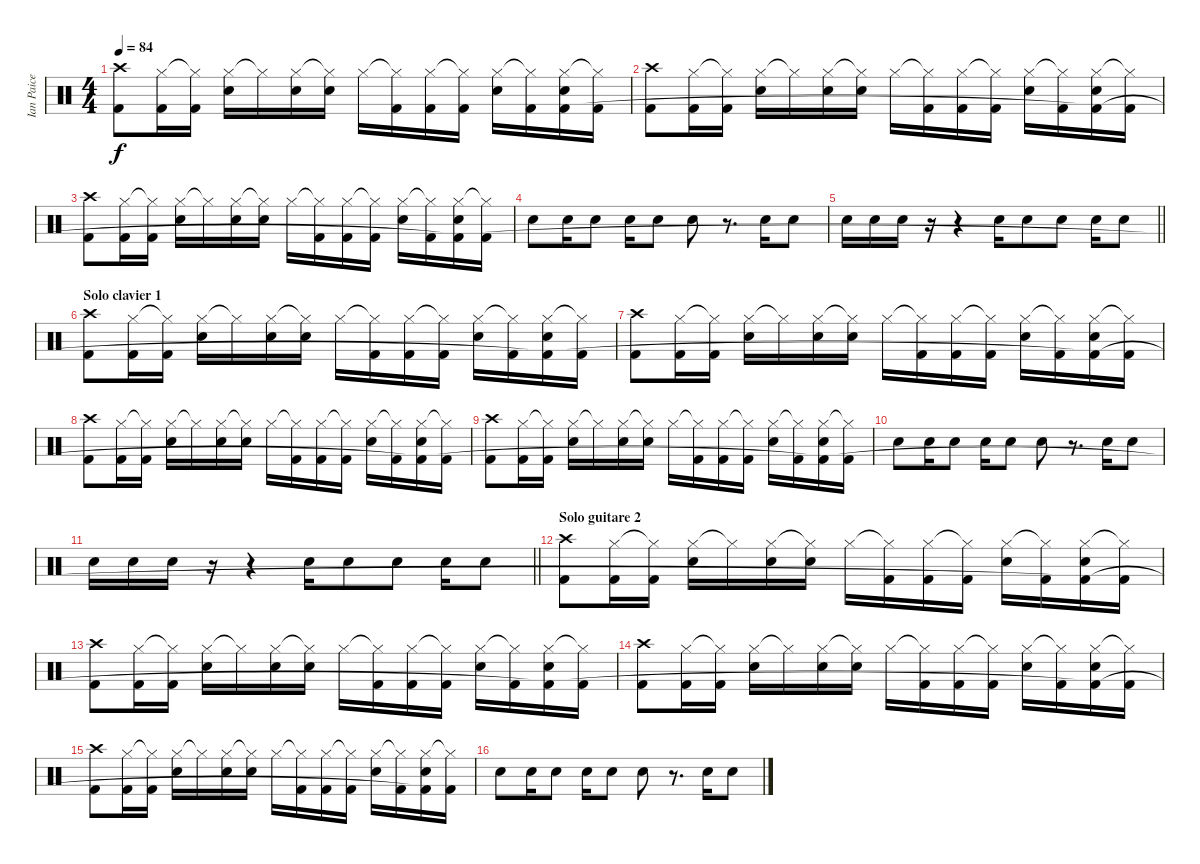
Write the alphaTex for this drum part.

\track ("Ian Paice" "Ian Paice") {instrument percussion}
\staff {score}
\articulation defaults
\ts (4 4)
\tempo 84
\clef neutral
\ks c
("Crash high (hit)" "Kick (hit) 2").8{dy f} ("Hi-Hat (closed)" "Kick (hit) 2").16 ("Hi-Hat (closed)"{t} "Kick (hit) 2").16 ("Hi-Hat (closed)" "Snare (hit) 2").16 "Hi-Hat (closed)"{t}.16 ("Hi-Hat (closed)" "Snare (hit) 2").16 ("Hi-Hat (closed)"{t} "Snare (hit) 2").16 "Hi-Hat (closed)".16 ("Hi-Hat (closed)"{t} "Kick (hit) 2").16 ("Hi-Hat (closed)" "Kick (hit) 2").16 ("Hi-Hat (closed)"{t} "Kick (hit) 2").16 ("Hi-Hat (closed)" "Snare (hit) 2").16 ("Hi-Hat (closed)"{t} "Kick (hit) 2").16 ("Hi-Hat (closed)" "Snare (hit) 2" "Kick (hit) 2"{t}).16 ("Hi-Hat (closed)"{t} "Kick (hit) 2").16 |
("Crash high (hit)" "Kick (hit) 2").8 ("Hi-Hat (closed)" "Kick (hit) 2").16 ("Hi-Hat (closed)"{t} "Kick (hit) 2").16 ("Hi-Hat (closed)" "Snare (hit) 2").16 "Hi-Hat (closed)"{t}.16 ("Hi-Hat (closed)" "Snare (hit) 2").16 ("Hi-Hat (closed)"{t} "Snare (hit) 2").16 "Hi-Hat (closed)".16 ("Hi-Hat (closed)"{t} "Kick (hit) 2").16 ("Hi-Hat (closed)" "Kick (hit) 2").16 ("Hi-Hat (closed)"{t} "Kick (hit) 2").16 ("Hi-Hat (closed)" "Snare (hit) 2").16 ("Hi-Hat (closed)"{t} "Kick (hit) 2").16 ("Hi-Hat (closed)" "Snare (hit) 2" "Kick (hit) 2"{t}).16 ("Hi-Hat (closed)"{t} "Kick (hit) 2").16 |
("Crash high (hit)" "Kick (hit) 2").8 ("Hi-Hat (closed)" "Kick (hit) 2").16 ("Hi-Hat (closed)"{t} "Kick (hit) 2").16 ("Hi-Hat (closed)" "Snare (hit) 2").16 "Hi-Hat (closed)"{t}.16 ("Hi-Hat (closed)" "Snare (hit) 2").16 ("Hi-Hat (closed)"{t} "Snare (hit) 2").16 "Hi-Hat (closed)".16 ("Hi-Hat (closed)"{t} "Kick (hit) 2").16 ("Hi-Hat (closed)" "Kick (hit) 2").16 ("Hi-Hat (closed)"{t} "Kick (hit) 2").16 ("Hi-Hat (closed)" "Snare (hit) 2").16 ("Hi-Hat (closed)"{t} "Kick (hit) 2").16 ("Hi-Hat (closed)" "Snare (hit) 2" "Kick (hit) 2"{t}).16 ("Hi-Hat (closed)"{t} "Kick (hit) 2").16 |
"Snare (hit) 2".8 "Snare (hit) 2".16 "Snare (hit) 2".8 "Snare (hit) 2".16 "Snare (hit) 2".8 "Snare (hit) 2".8 r.8{d} "Snare (hit) 2".16 "Snare (hit) 2".8 |
\barLineRight lightlight "Snare (hit) 2".16 "Snare (hit) 2".16 "Snare (hit) 2".16
r.16 r.4 "Snare (hit) 2".16 "Snare (hit) 2".8 "Snare (hit) 2".8 "Snare (hit) 2".16 "Snare (hit) 2".8 |
\section ("" "Solo clavier 1")
("Crash high (hit)" "Kick (hit) 2").8 ("Hi-Hat (closed)" "Kick (hit) 2").16 ("Hi-Hat (closed)"{t} "Kick (hit) 2").16 ("Hi-Hat (closed)" "Snare (hit) 2").16 "Hi-Hat (closed)"{t}.16 ("Hi-Hat (closed)" "Snare (hit) 2").16 ("Hi-Hat (closed)"{t} "Snare (hit) 2").16 "Hi-Hat (closed)".16 ("Hi-Hat (closed)"{t} "Kick (hit) 2").16 ("Hi-Hat (closed)" "Kick (hit) 2").16 ("Hi-Hat (closed)"{t} "Kick (hit) 2").16 ("Hi-Hat (closed)" "Snare (hit) 2").16 ("Hi-Hat (closed)"{t} "Kick (hit) 2").16 ("Hi-Hat (closed)" "Snare (hit) 2" "Kick (hit) 2"{t}).16 ("Hi-Hat (closed)"{t} "Kick (hit) 2").16 |
("Crash high (hit)" "Kick (hit) 2").8 ("Hi-Hat (closed)" "Kick (hit) 2").16 ("Hi-Hat (closed)"{t} "Kick (hit) 2").16 ("Hi-Hat (closed)" "Snare (hit) 2").16 "Hi-Hat (closed)"{t}.16 ("Hi-Hat (closed)" "Snare (hit) 2").16 ("Hi-Hat (closed)"{t} "Snare (hit) 2").16 "Hi-Hat (closed)".16 ("Hi-Hat (closed)"{t} "Kick (hit) 2").16 ("Hi-Hat (closed)" "Kick (hit) 2").16 ("Hi-Hat (closed)"{t} "Kick (hit) 2").16 ("Hi-Hat (closed)" "Snare (hit) 2").16 ("Hi-Hat (closed)"{t} "Kick (hit) 2").16 ("Hi-Hat (closed)" "Snare (hit) 2" "Kick (hit) 2"{t}).16 ("Hi-Hat (closed)"{t} "Kick (hit) 2").16 |
("Crash high (hit)" "Kick (hit) 2").8 ("Hi-Hat (closed)" "Kick (hit) 2").16 ("Hi-Hat (closed)"{t} "Kick (hit) 2").16 ("Hi-Hat (closed)" "Snare (hit) 2").16 "Hi-Hat (closed)"{t}.16 ("Hi-Hat (closed)" "Snare (hit) 2").16 ("Hi-Hat (closed)"{t} "Snare (hit) 2").16 "Hi-Hat (closed)".16 ("Hi-Hat (closed)"{t} "Kick (hit) 2").16 ("Hi-Hat (closed)" "Kick (hit) 2").16 ("Hi-Hat (closed)"{t} "Kick (hit) 2").16 ("Hi-Hat (closed)" "Snare (hit) 2").16 ("Hi-Hat (closed)"{t} "Kick (hit) 2").16 ("Hi-Hat (closed)" "Snare (hit) 2" "Kick (hit) 2"{t}).16 ("Hi-Hat (closed)"{t} "Kick (hit) 2").16 |
("Crash high (hit)" "Kick (hit) 2").8 ("Hi-Hat (closed)" "Kick (hit) 2").16 ("Hi-Hat (closed)"{t} "Kick (hit) 2").16 ("Hi-Hat (closed)" "Snare (hit) 2").16 "Hi-Hat (closed)"{t}.16 ("Hi-Hat (closed)" "Snare (hit) 2").16 ("Hi-Hat (closed)"{t} "Snare (hit) 2").16 "Hi-Hat (closed)".16 ("Hi-Hat (closed)"{t} "Kick (hit) 2").16 ("Hi-Hat (closed)" "Kick (hit) 2").16 ("Hi-Hat (closed)"{t} "Kick (hit) 2").16 ("Hi-Hat (closed)" "Snare (hit) 2").16 ("Hi-Hat (closed)"{t} "Kick (hit) 2").16 ("Hi-Hat (closed)" "Snare (hit) 2" "Kick (hit) 2"{t}).16 ("Hi-Hat (closed)"{t} "Kick (hit) 2").16 |
"Snare (hit) 2".8 "Snare (hit) 2".16 "Snare (hit) 2".8 "Snare (hit) 2".16 "Snare (hit) 2".8 "Snare (hit) 2".8 r.8{d} "Snare (hit) 2".16 "Snare (hit) 2".8 |
\barLineRight lightlight "Snare (hit) 2".16 "Snare (hit) 2".16 "Snare (hit) 2".16
r.16 r.4 "Snare (hit) 2".16 "Snare (hit) 2".8 "Snare (hit) 2".8 "Snare (hit) 2".16 "Snare (hit) 2".8 |
\section ("" "Solo guitare 2")
("Crash high (hit)" "Kick (hit) 2").8 ("Hi-Hat (closed)" "Kick (hit) 2").16 ("Hi-Hat (closed)"{t} "Kick (hit) 2").16 ("Hi-Hat (closed)" "Snare (hit) 2").16 "Hi-Hat (closed)"{t}.16 ("Hi-Hat (closed)" "Snare (hit) 2").16 ("Hi-Hat (closed)"{t} "Snare (hit) 2").16 "Hi-Hat (closed)".16 ("Hi-Hat (closed)"{t} "Kick (hit) 2").16 ("Hi-Hat (closed)" "Kick (hit) 2").16 ("Hi-Hat (closed)"{t} "Kick (hit) 2").16 ("Hi-Hat (closed)" "Snare (hit) 2").16 ("Hi-Hat (closed)"{t} "Kick (hit) 2").16 ("Hi-Hat (closed)" "Snare (hit) 2" "Kick (hit) 2"{t}).16 ("Hi-Hat (closed)"{t} "Kick (hit) 2").16 |
("Crash high (hit)" "Kick (hit) 2").8 ("Hi-Hat (closed)" "Kick (hit) 2").16 ("Hi-Hat (closed)"{t} "Kick (hit) 2").16 ("Hi-Hat (closed)" "Snare (hit) 2").16 "Hi-Hat (closed)"{t}.16 ("Hi-Hat (closed)" "Snare (hit) 2").16 ("Hi-Hat (closed)"{t} "Snare (hit) 2").16 "Hi-Hat (closed)".16 ("Hi-Hat (closed)"{t} "Kick (hit) 2").16 ("Hi-Hat (closed)" "Kick (hit) 2").16 ("Hi-Hat (closed)"{t} "Kick (hit) 2").16 ("Hi-Hat (closed)" "Snare (hit) 2").16 ("Hi-Hat (closed)"{t} "Kick (hit) 2").16 ("Hi-Hat (closed)" "Snare (hit) 2" "Kick (hit) 2"{t}).16 ("Hi-Hat (closed)"{t} "Kick (hit) 2").16 |
("Crash high (hit)" "Kick (hit) 2").8 ("Hi-Hat (closed)" "Kick (hit) 2").16 ("Hi-Hat (closed)"{t} "Kick (hit) 2").16 ("Hi-Hat (closed)" "Snare (hit) 2").16 "Hi-Hat (closed)"{t}.16 ("Hi-Hat (closed)" "Snare (hit) 2").16 ("Hi-Hat (closed)"{t} "Snare (hit) 2").16 "Hi-Hat (closed)".16 ("Hi-Hat (closed)"{t} "Kick (hit) 2").16 ("Hi-Hat (closed)" "Kick (hit) 2").16 ("Hi-Hat (closed)"{t} "Kick (hit) 2").16 ("Hi-Hat (closed)" "Snare (hit) 2").16 ("Hi-Hat (closed)"{t} "Kick (hit) 2").16 ("Hi-Hat (closed)" "Snare (hit) 2" "Kick (hit) 2"{t}).16 ("Hi-Hat (closed)"{t} "Kick (hit) 2").16 |
("Crash high (hit)" "Kick (hit) 2").8 ("Hi-Hat (closed)" "Kick (hit) 2").16 ("Hi-Hat (closed)"{t} "Kick (hit) 2").16 ("Hi-Hat (closed)" "Snare (hit) 2").16 "Hi-Hat (closed)"{t}.16 ("Hi-Hat (closed)" "Snare (hit) 2").16 ("Hi-Hat (closed)"{t} "Snare (hit) 2").16 "Hi-Hat (closed)".16 ("Hi-Hat (closed)"{t} "Kick (hit) 2").16 ("Hi-Hat (closed)" "Kick (hit) 2").16 ("Hi-Hat (closed)"{t} "Kick (hit) 2").16 ("Hi-Hat (closed)" "Snare (hit) 2").16 ("Hi-Hat (closed)"{t} "Kick (hit) 2").16 ("Hi-Hat (closed)" "Snare (hit) 2" "Kick (hit) 2"{t}).16 ("Hi-Hat (closed)"{t} "Kick (hit) 2").16 |
"Snare (hit) 2".8 "Snare (hit) 2".16 "Snare (hit) 2".8 "Snare (hit) 2".16 "Snare (hit) 2".8 "Snare (hit) 2".8 r.8{d} "Snare (hit) 2".16 "Snare (hit) 2".8
